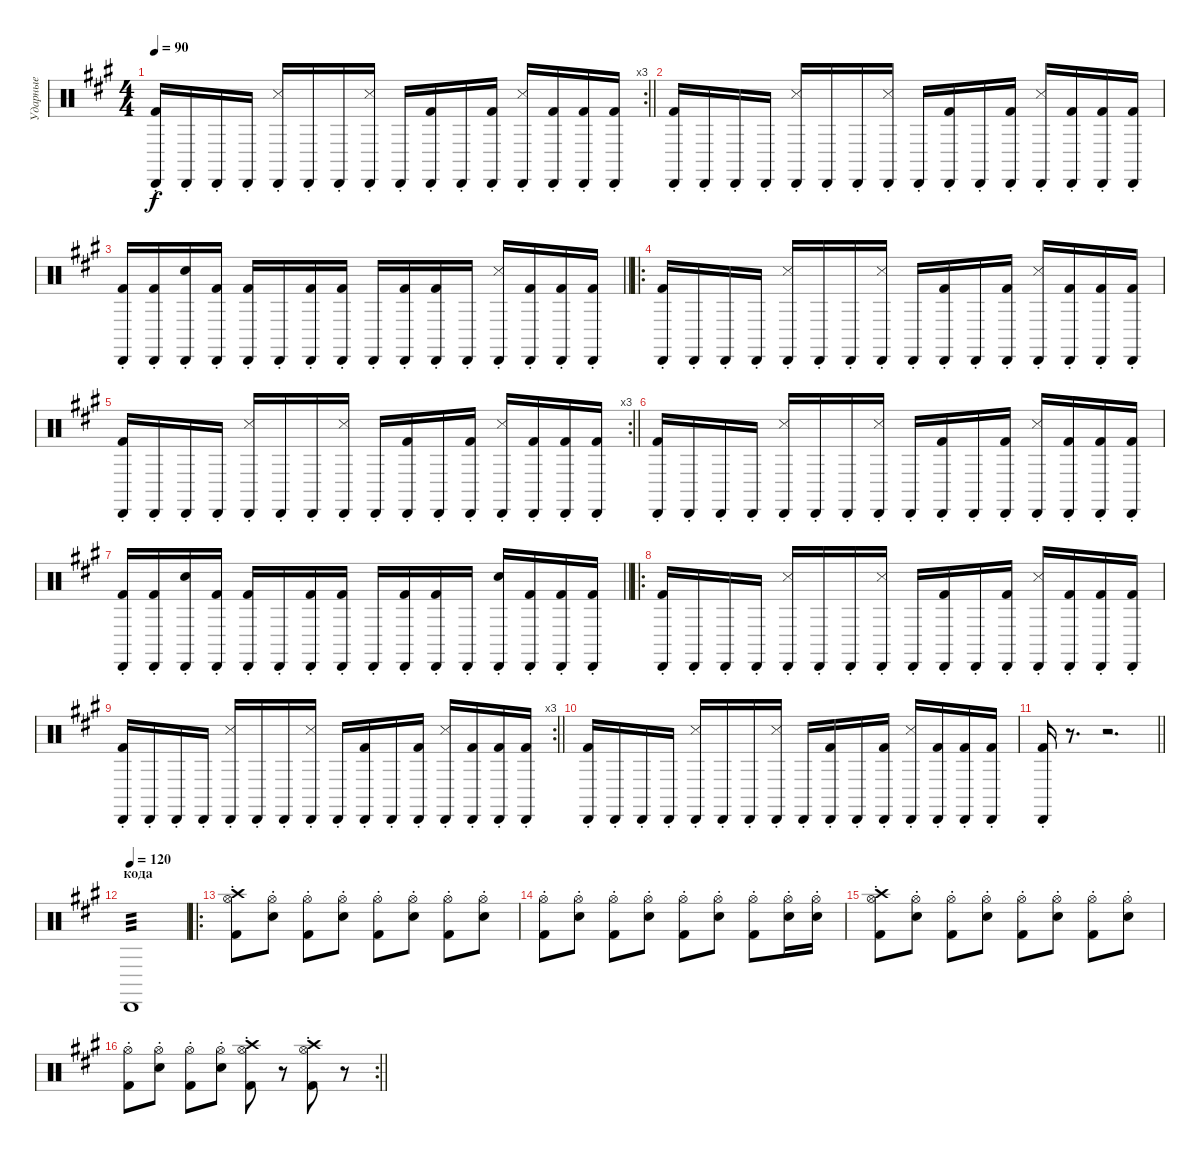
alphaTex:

\track ("Ударные" "Ударные") {instrument percussion}
\staff {score}
\articulation defaults
\rc 3
\ts (4 4)
\tempo 90
\clef neutral
\barLineRight lightlight
\ks f#minor
("Cabasa (hit)"{st} "Kick (hit) 2").16{dy f} "Cabasa (hit)"{st}.16 "Cabasa (hit)"{st}.16 "Cabasa (hit)"{st}.16 ("Cabasa (hit)"{st} "Snare (side stick) 3").16 "Cabasa (hit)"{st}.16 "Cabasa (hit)"{st}.16 ("Cabasa (hit)"{st} "Snare (side stick) 3").16 "Cabasa (hit)"{st}.16 ("Cabasa (hit)"{st} "Kick (hit) 2").16 "Cabasa (hit)"{st}.16 ("Cabasa (hit)"{st} "Kick (hit) 2").16 ("Cabasa (hit)"{st} "Snare (side stick) 3").16 ("Cabasa (hit)"{st} "Kick (hit) 2").16 ("Cabasa (hit)"{st} "Kick (hit) 2").16 ("Cabasa (hit)"{st} "Kick (hit) 2").16 |
("Cabasa (hit)"{st} "Kick (hit) 2").16 "Cabasa (hit)"{st}.16 "Cabasa (hit)"{st}.16 "Cabasa (hit)"{st}.16 ("Cabasa (hit)"{st} "Snare (side stick) 3").16 "Cabasa (hit)"{st}.16 "Cabasa (hit)"{st}.16 ("Cabasa (hit)"{st} "Snare (side stick) 3").16 "Cabasa (hit)"{st}.16 ("Cabasa (hit)"{st} "Kick (hit) 2").16 "Cabasa (hit)"{st}.16 ("Cabasa (hit)"{st} "Kick (hit) 2").16 ("Cabasa (hit)"{st} "Snare (side stick) 3").16 ("Cabasa (hit)"{st} "Kick (hit) 2").16 ("Cabasa (hit)"{st} "Kick (hit) 2").16 ("Cabasa (hit)"{st} "Kick (hit) 2").16 |
\barLineRight lightlight
("Cabasa (hit)"{st} "Kick (hit) 2").16 ("Cabasa (hit)"{st} "Kick (hit) 2").16 ("Cabasa (hit)"{st} "Snare (hit) 2").16 ("Cabasa (hit)"{st} "Kick (hit) 2").16 ("Cabasa (hit)"{st} "Kick (hit) 2").16 "Cabasa (hit)"{st}.16 ("Cabasa (hit)"{st} "Kick (hit) 2").16 ("Cabasa (hit)"{st} "Kick (hit) 2").16 "Cabasa (hit)"{st}.16 ("Cabasa (hit)"{st} "Kick (hit) 2").16 ("Cabasa (hit)"{st} "Kick (hit) 2").16 "Cabasa (hit)"{st}.16 ("Cabasa (hit)"{st} "Snare (side stick) 3").16 ("Cabasa (hit)"{st} "Kick (hit) 2").16 ("Cabasa (hit)"{st} "Kick (hit) 2").16 ("Cabasa (hit)"{st} "Kick (hit) 2").16 |
\ro
("Cabasa (hit)"{st} "Kick (hit) 2").16 "Cabasa (hit)"{st}.16 "Cabasa (hit)"{st}.16 "Cabasa (hit)"{st}.16 ("Cabasa (hit)"{st} "Snare (side stick) 3").16 "Cabasa (hit)"{st}.16 "Cabasa (hit)"{st}.16 ("Cabasa (hit)"{st} "Snare (side stick) 3").16 "Cabasa (hit)"{st}.16 ("Cabasa (hit)"{st} "Kick (hit) 2").16 "Cabasa (hit)"{st}.16 ("Cabasa (hit)"{st} "Kick (hit) 2").16 ("Cabasa (hit)"{st} "Snare (side stick) 3").16 ("Cabasa (hit)"{st} "Kick (hit) 2").16 ("Cabasa (hit)"{st} "Kick (hit) 2").16 ("Cabasa (hit)"{st} "Kick (hit) 2").16 |
\rc 3
\barLineRight lightlight
("Cabasa (hit)"{st} "Kick (hit) 2").16 "Cabasa (hit)"{st}.16 "Cabasa (hit)"{st}.16 "Cabasa (hit)"{st}.16 ("Cabasa (hit)"{st} "Snare (side stick) 3").16 "Cabasa (hit)"{st}.16 "Cabasa (hit)"{st}.16 ("Cabasa (hit)"{st} "Snare (side stick) 3").16 "Cabasa (hit)"{st}.16 ("Cabasa (hit)"{st} "Kick (hit) 2").16 "Cabasa (hit)"{st}.16 ("Cabasa (hit)"{st} "Kick (hit) 2").16 ("Cabasa (hit)"{st} "Snare (side stick) 3").16 ("Cabasa (hit)"{st} "Kick (hit) 2").16 ("Cabasa (hit)"{st} "Kick (hit) 2").16 ("Cabasa (hit)"{st} "Kick (hit) 2").16 |
("Cabasa (hit)"{st} "Kick (hit) 2").16 "Cabasa (hit)"{st}.16 "Cabasa (hit)"{st}.16 "Cabasa (hit)"{st}.16 ("Cabasa (hit)"{st} "Snare (side stick) 3").16 "Cabasa (hit)"{st}.16 "Cabasa (hit)"{st}.16 ("Cabasa (hit)"{st} "Snare (side stick) 3").16 "Cabasa (hit)"{st}.16 ("Cabasa (hit)"{st} "Kick (hit) 2").16 "Cabasa (hit)"{st}.16 ("Cabasa (hit)"{st} "Kick (hit) 2").16 ("Cabasa (hit)"{st} "Snare (side stick) 3").16 ("Cabasa (hit)"{st} "Kick (hit) 2").16 ("Cabasa (hit)"{st} "Kick (hit) 2").16 ("Cabasa (hit)"{st} "Kick (hit) 2").16 |
\barLineRight lightlight
("Cabasa (hit)"{st} "Kick (hit) 2").16 ("Cabasa (hit)"{st} "Kick (hit) 2").16 ("Cabasa (hit)"{st} "Snare (hit) 2").16 ("Cabasa (hit)"{st} "Kick (hit) 2").16 ("Cabasa (hit)"{st} "Kick (hit) 2").16 "Cabasa (hit)"{st}.16 ("Cabasa (hit)"{st} "Kick (hit) 2").16 ("Cabasa (hit)"{st} "Kick (hit) 2").16 "Cabasa (hit)"{st}.16 ("Cabasa (hit)"{st} "Kick (hit) 2").16 ("Cabasa (hit)"{st} "Kick (hit) 2").16 "Cabasa (hit)"{st}.16 ("Cabasa (hit)"{st} "Snare (hit) 2").16 ("Cabasa (hit)"{st} "Kick (hit) 2").16 ("Cabasa (hit)"{st} "Kick (hit) 2").16 ("Cabasa (hit)"{st} "Kick (hit) 2").16 |
\ro
("Cabasa (hit)"{st} "Kick (hit) 2").16 "Cabasa (hit)"{st}.16 "Cabasa (hit)"{st}.16 "Cabasa (hit)"{st}.16 ("Cabasa (hit)"{st} "Snare (side stick) 3").16 "Cabasa (hit)"{st}.16 "Cabasa (hit)"{st}.16 ("Cabasa (hit)"{st} "Snare (side stick) 3").16 "Cabasa (hit)"{st}.16 ("Cabasa (hit)"{st} "Kick (hit) 2").16 "Cabasa (hit)"{st}.16 ("Cabasa (hit)"{st} "Kick (hit) 2").16 ("Cabasa (hit)"{st} "Snare (side stick) 3").16 ("Cabasa (hit)"{st} "Kick (hit) 2").16 ("Cabasa (hit)"{st} "Kick (hit) 2").16 ("Cabasa (hit)"{st} "Kick (hit) 2").16 |
\rc 3
\barLineRight lightlight
("Cabasa (hit)"{st} "Kick (hit) 2").16 "Cabasa (hit)"{st}.16 "Cabasa (hit)"{st}.16 "Cabasa (hit)"{st}.16 ("Cabasa (hit)"{st} "Snare (side stick) 3").16 "Cabasa (hit)"{st}.16 "Cabasa (hit)"{st}.16 ("Cabasa (hit)"{st} "Snare (side stick) 3").16 "Cabasa (hit)"{st}.16 ("Cabasa (hit)"{st} "Kick (hit) 2").16 "Cabasa (hit)"{st}.16 ("Cabasa (hit)"{st} "Kick (hit) 2").16 ("Cabasa (hit)"{st} "Snare (side stick) 3").16 ("Cabasa (hit)"{st} "Kick (hit) 2").16 ("Cabasa (hit)"{st} "Kick (hit) 2").16 ("Cabasa (hit)"{st} "Kick (hit) 2").16 |
("Cabasa (hit)"{st} "Kick (hit) 2").16 "Cabasa (hit)"{st}.16 "Cabasa (hit)"{st}.16 "Cabasa (hit)"{st}.16 ("Cabasa (hit)"{st} "Snare (side stick) 3").16 "Cabasa (hit)"{st}.16 "Cabasa (hit)"{st}.16 ("Cabasa (hit)"{st} "Snare (side stick) 3").16 "Cabasa (hit)"{st}.16 ("Cabasa (hit)"{st} "Kick (hit) 2").16 "Cabasa (hit)"{st}.16 ("Cabasa (hit)"{st} "Kick (hit) 2").16 ("Cabasa (hit)"{st} "Snare (side stick) 3").16 ("Cabasa (hit)"{st} "Kick (hit) 2").16 ("Cabasa (hit)"{st} "Kick (hit) 2").16 ("Cabasa (hit)"{st} "Kick (hit) 2").16 |
\barLineRight lightlight
("Cabasa (hit)"{st} "Kick (hit) 2").16 r.8{d} r.2{d} |
\section ("" "кода")
\tempo (120)
"Cabasa (hit)".1{tp 3} |
\ro
("Crash high (hit)"{st} "Hi-Hat (open)"{st} "Kick (hit) 2"{st}).8 ("Snare (hit) 2"{st} "Hi-Hat (open)"{st}).8 ("Hi-Hat (open)"{st} "Kick (hit) 2"{st}).8 ("Snare (hit) 2"{st} "Hi-Hat (open)"{st}).8 ("Hi-Hat (open)"{st} "Kick (hit) 2"{st}).8 ("Snare (hit) 2"{st} "Hi-Hat (open)"{st}).8 ("Hi-Hat (open)"{st} "Kick (hit) 2"{st}).8 ("Snare (hit) 2"{st} "Hi-Hat (open)"{st}).8 |
("Hi-Hat (open)"{st} "Kick (hit) 2"{st}).8 ("Snare (hit) 2"{st} "Hi-Hat (open)"{st}).8 ("Hi-Hat (open)"{st} "Kick (hit) 2"{st}).8 ("Snare (hit) 2"{st} "Hi-Hat (open)"{st}).8 ("Hi-Hat (open)"{st} "Kick (hit) 2"{st}).8 ("Snare (hit) 2"{st} "Hi-Hat (open)"{st}).8 ("Hi-Hat (open)"{st} "Kick (hit) 2"{st}).8 ("Snare (hit) 2"{st} "Hi-Hat (open)"{st}).16 ("Electric Snare (hit)"{st} "Hi-Hat (open)"{st}).16 |
("Crash high (hit)"{st} "Hi-Hat (open)"{st} "Kick (hit) 2"{st}).8 ("Snare (hit) 2"{st} "Hi-Hat (open)"{st}).8 ("Hi-Hat (open)"{st} "Kick (hit) 2"{st}).8 ("Snare (hit) 2"{st} "Hi-Hat (open)"{st}).8 ("Hi-Hat (open)"{st} "Kick (hit) 2"{st}).8 ("Snare (hit) 2"{st} "Hi-Hat (open)"{st}).8 ("Hi-Hat (open)"{st} "Kick (hit) 2"{st}).8 ("Snare (hit) 2"{st} "Hi-Hat (open)"{st}).8 |
\rc 2
\barLineRight lightlight
("Hi-Hat (open)"{st} "Kick (hit) 2"{st}).8 ("Snare (hit) 2"{st} "Hi-Hat (open)"{st}).8 ("Hi-Hat (open)"{st} "Kick (hit) 2"{st}).8 ("Snare (hit) 2"{st} "Hi-Hat (open)"{st}).8 ("Crash high (hit)" "Hi-Hat (open)"{st} "Kick (hit) 2"{st}).8 r.8 ("Crash high (hit)" "Hi-Hat (open)"{st} "Kick (hit) 2"{st}).8 r.8
